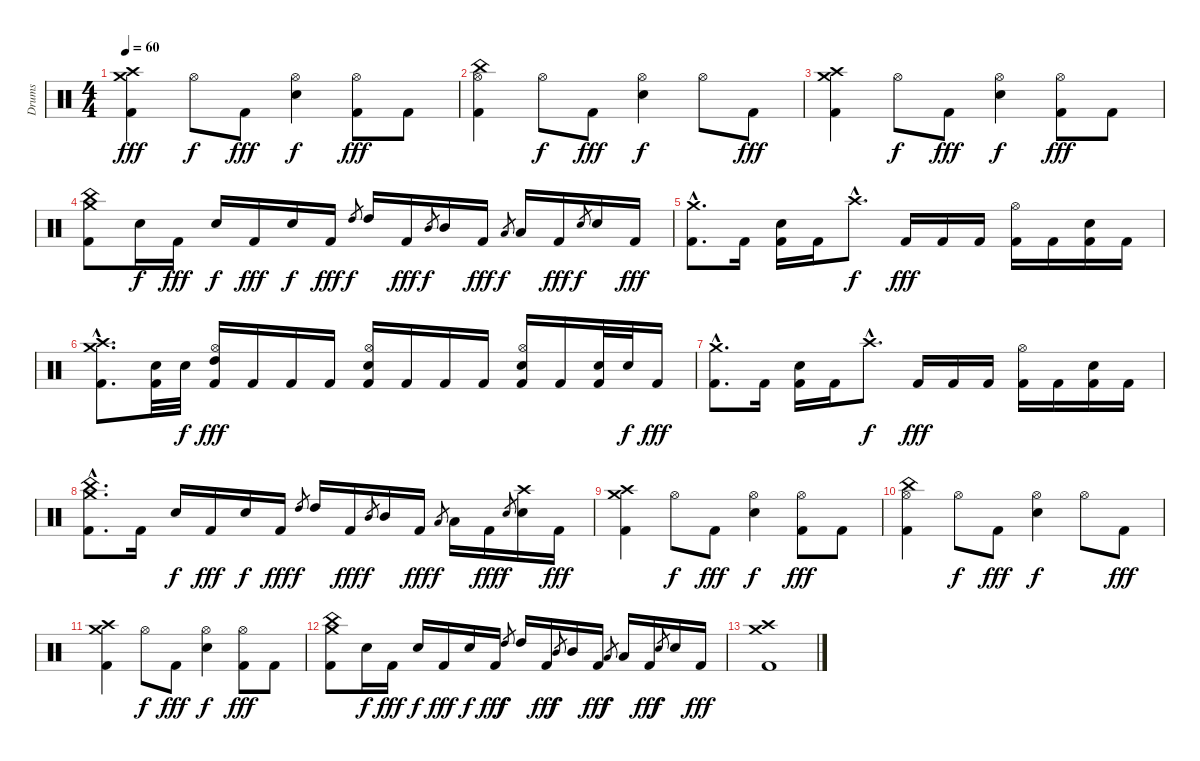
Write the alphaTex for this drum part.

\track ("Drums" "Drums") {instrument percussion}
\staff {score}
\articulation defaults
\ts (4 4)
\tempo 60
\clef neutral
\ks c
("Crash medium (hit)" "Crash high (hit)" "Kick (hit) 2").4{dy fff} "Hi-Hat (open)".8{dy f} "Kick (hit) 2".8{dy fff} ("Hi-Hat (open)" "Snare (hit) 2").4{dy f} ("Hi-Hat (open)" "Kick (hit) 2").8{dy fff} "Kick (hit) 2".8 |
("China (hit)" "Hi-Hat (open)" "Kick (hit) 2").4 "Hi-Hat (open)".8{dy f} "Kick (hit) 2".8{dy fff} ("Hi-Hat (open)" "Snare (hit) 2").4{dy f} "Hi-Hat (open)".8 "Kick (hit) 2".8{dy fff} |
("Crash medium (hit)" "Crash high (hit)" "Kick (hit) 2").4 "Hi-Hat (open)".8{dy f} "Kick (hit) 2".8{dy fff} ("Hi-Hat (open)" "Snare (hit) 2").4{dy f} ("Hi-Hat (open)" "Kick (hit) 2").8{dy fff} "Kick (hit) 2".8 |
("Crash medium (hit)" "China (hit)" "Kick (hit) 2").8 "Snare (hit) 2".16{dy f} "Kick (hit) 2".16{dy fff} "Snare (hit) 2".16{dy f} "Kick (hit) 2".16{dy fff} "Snare (hit) 2".16{dy f} "Kick (hit) 2".16{dy fff} "High Tom (hit)".8{gr dy f} "High Tom (hit)".16 "Kick (hit) 2".16{dy fff} "Mid Tom (hit)".8{gr dy f} "Mid Tom (hit)".16 "Kick (hit) 2".16{dy fff} "Low Tom (hit)".8{gr dy f} "Low Tom (hit)".16 "Kick (hit) 2".16{dy fff} "Snare (hit) 2".8{gr dy f} "Snare (hit) 2".16 "Kick (hit) 2".16{dy fff} |
("Crash medium (hit)"{hac} "Kick (hit) 2"{hac}).8{d} "Kick (hit) 2".16 ("Snare (hit) 2" "Kick (hit) 2").16 "Kick (hit) 2".16 "Crash high (hit)"{hac}.8{d dy f} "Kick (hit) 2".16{dy fff} "Kick (hit) 2".16 "Kick (hit) 2".16 ("Hi-Hat (open)" "Kick (hit) 2").16 "Kick (hit) 2".16 ("Snare (hit) 2" "Kick (hit) 2").16 "Kick (hit) 2".16 |
("Crash medium (hit)"{hac} "Crash high (hit)"{hac} "Kick (hit) 2"{hac}).8{d} ("Snare (hit) 2" "Kick (hit) 2").32 "Snare (hit) 2".32{dy f} ("Hi-Hat (open)" "High Tom (hit)" "Kick (hit) 2").16{dy fff} "Kick (hit) 2".16 "Kick (hit) 2".16 "Kick (hit) 2".16 ("Hi-Hat (open)" "Snare (hit) 2" "Kick (hit) 2").16 "Kick (hit) 2".16 "Kick (hit) 2".16 "Kick (hit) 2".16 ("Hi-Hat (open)" "Snare (hit) 2" "Kick (hit) 2").16 "Kick (hit) 2".16 ("Snare (hit) 2" "Kick (hit) 2").32 "Snare (hit) 2".32{dy f} "Kick (hit) 2".16{dy fff} |
("Crash medium (hit)"{hac} "Kick (hit) 2"{hac}).8{d} "Kick (hit) 2".16 ("Snare (hit) 2" "Kick (hit) 2").16 "Kick (hit) 2".16 "Crash high (hit)"{hac}.8{d dy f} "Kick (hit) 2".16{dy fff} "Kick (hit) 2".16 "Kick (hit) 2".16 ("Hi-Hat (open)" "Kick (hit) 2").16 "Kick (hit) 2".16 ("Snare (hit) 2" "Kick (hit) 2").16 "Kick (hit) 2".16 |
("Crash medium (hit)"{hac} "China (hit)"{hac} "Kick (hit) 2"{hac}).8{d} "Kick (hit) 2".16 "Snare (hit) 2".16{dy f} "Kick (hit) 2".16{dy fff} "Snare (hit) 2".16{dy f} "Kick (hit) 2".16{dy fff} "High Tom (hit)".8{gr dy f} "High Tom (hit)".16 "Kick (hit) 2".16{dy fff} "Mid Tom (hit)".8{gr dy f} "Mid Tom (hit)".16 "Kick (hit) 2".16{dy fff} "Low Tom (hit)".8{gr dy f} "Low Tom (hit)".16 "Kick (hit) 2".16{dy fff} "Snare (hit) 2".8{gr dy f} ("Crash high (hit)" "Snare (hit) 2").16 "Kick (hit) 2".16{dy fff} |
("Crash medium (hit)" "Crash high (hit)" "Kick (hit) 2").4 "Hi-Hat (open)".8{dy f} "Kick (hit) 2".8{dy fff} ("Hi-Hat (open)" "Snare (hit) 2").4{dy f} ("Hi-Hat (open)" "Kick (hit) 2").8{dy fff} "Kick (hit) 2".8 |
("China (hit)" "Hi-Hat (open)" "Kick (hit) 2").4 "Hi-Hat (open)".8{dy f} "Kick (hit) 2".8{dy fff} ("Hi-Hat (open)" "Snare (hit) 2").4{dy f} "Hi-Hat (open)".8 "Kick (hit) 2".8{dy fff} |
("Crash medium (hit)" "Crash high (hit)" "Kick (hit) 2").4 "Hi-Hat (open)".8{dy f} "Kick (hit) 2".8{dy fff} ("Hi-Hat (open)" "Snare (hit) 2").4{dy f} ("Hi-Hat (open)" "Kick (hit) 2").8{dy fff} "Kick (hit) 2".8 |
("Crash medium (hit)" "China (hit)" "Kick (hit) 2").8 "Snare (hit) 2".16{dy f} "Kick (hit) 2".16{dy fff} "Snare (hit) 2".16{dy f} "Kick (hit) 2".16{dy fff} "Snare (hit) 2".16{dy f} "Kick (hit) 2".16{dy fff} "High Tom (hit)".8{gr dy f} "High Tom (hit)".16 "Kick (hit) 2".16{dy fff} "Mid Tom (hit)".8{gr dy f} "Mid Tom (hit)".16 "Kick (hit) 2".16{dy fff} "Low Tom (hit)".8{gr dy f} "Low Tom (hit)".16 "Kick (hit) 2".16{dy fff} "Snare (hit) 2".8{gr dy f} "Snare (hit) 2".16 "Kick (hit) 2".16{dy fff} |
("Crash medium (hit)" "Crash high (hit)" "Kick (hit) 2").1
